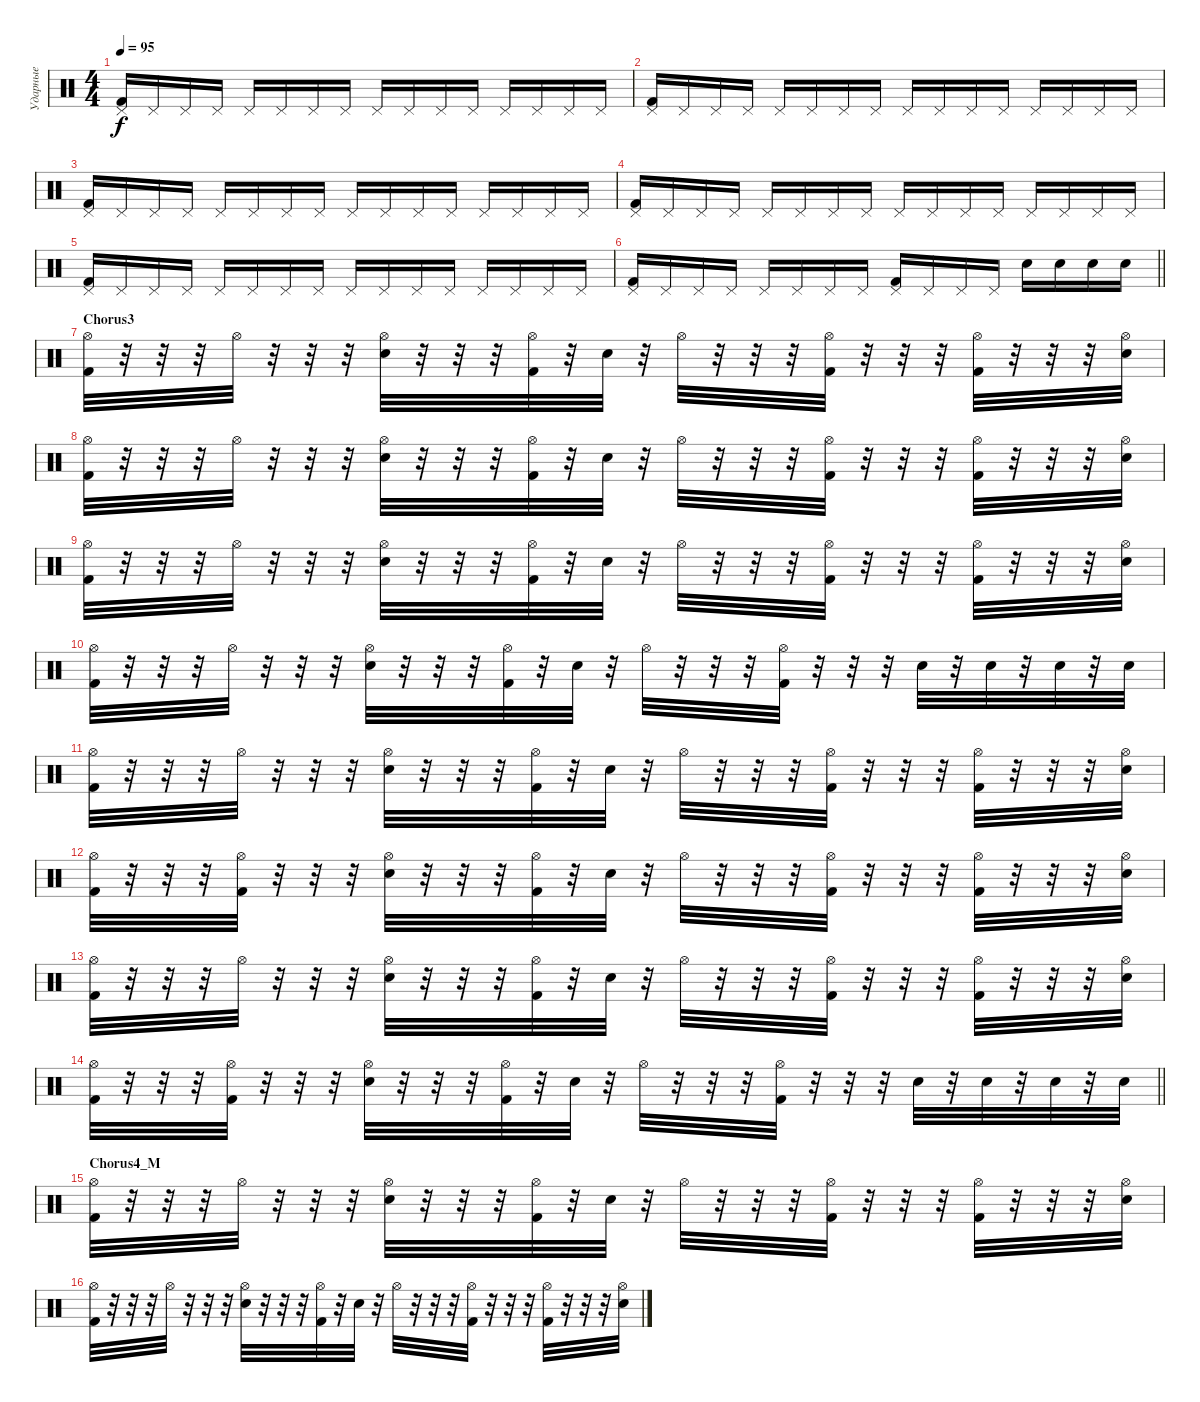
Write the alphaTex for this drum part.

\track ("Ударные" "Ударные") {instrument percussion}
\staff {score}
\articulation defaults
\ts (4 4)
\tempo 95
\clef neutral
\ks c
("Pedal Hi-Hat (hit)" "Kick (hit) 2").16{dy f} "Pedal Hi-Hat (hit)".16 "Pedal Hi-Hat (hit)".16 "Pedal Hi-Hat (hit)".16 "Pedal Hi-Hat (hit)".16 "Pedal Hi-Hat (hit)".16 "Pedal Hi-Hat (hit)".16 "Pedal Hi-Hat (hit)".16 "Pedal Hi-Hat (hit)".16 "Pedal Hi-Hat (hit)".16 "Pedal Hi-Hat (hit)".16 "Pedal Hi-Hat (hit)".16 "Pedal Hi-Hat (hit)".16 "Pedal Hi-Hat (hit)".16 "Pedal Hi-Hat (hit)".16 "Pedal Hi-Hat (hit)".16 |
("Pedal Hi-Hat (hit)" "Kick (hit) 2").16 "Pedal Hi-Hat (hit)".16 "Pedal Hi-Hat (hit)".16 "Pedal Hi-Hat (hit)".16 "Pedal Hi-Hat (hit)".16 "Pedal Hi-Hat (hit)".16 "Pedal Hi-Hat (hit)".16 "Pedal Hi-Hat (hit)".16 "Pedal Hi-Hat (hit)".16 "Pedal Hi-Hat (hit)".16 "Pedal Hi-Hat (hit)".16 "Pedal Hi-Hat (hit)".16 "Pedal Hi-Hat (hit)".16 "Pedal Hi-Hat (hit)".16 "Pedal Hi-Hat (hit)".16 "Pedal Hi-Hat (hit)".16 |
("Pedal Hi-Hat (hit)" "Kick (hit) 2").16 "Pedal Hi-Hat (hit)".16 "Pedal Hi-Hat (hit)".16 "Pedal Hi-Hat (hit)".16 "Pedal Hi-Hat (hit)".16 "Pedal Hi-Hat (hit)".16 "Pedal Hi-Hat (hit)".16 "Pedal Hi-Hat (hit)".16 "Pedal Hi-Hat (hit)".16 "Pedal Hi-Hat (hit)".16 "Pedal Hi-Hat (hit)".16 "Pedal Hi-Hat (hit)".16 "Pedal Hi-Hat (hit)".16 "Pedal Hi-Hat (hit)".16 "Pedal Hi-Hat (hit)".16 "Pedal Hi-Hat (hit)".16 |
("Pedal Hi-Hat (hit)" "Kick (hit) 2").16 "Pedal Hi-Hat (hit)".16 "Pedal Hi-Hat (hit)".16 "Pedal Hi-Hat (hit)".16 "Pedal Hi-Hat (hit)".16 "Pedal Hi-Hat (hit)".16 "Pedal Hi-Hat (hit)".16 "Pedal Hi-Hat (hit)".16 "Pedal Hi-Hat (hit)".16 "Pedal Hi-Hat (hit)".16 "Pedal Hi-Hat (hit)".16 "Pedal Hi-Hat (hit)".16 "Pedal Hi-Hat (hit)".16 "Pedal Hi-Hat (hit)".16 "Pedal Hi-Hat (hit)".16 "Pedal Hi-Hat (hit)".16 |
("Pedal Hi-Hat (hit)" "Kick (hit) 2").16 "Pedal Hi-Hat (hit)".16 "Pedal Hi-Hat (hit)".16 "Pedal Hi-Hat (hit)".16 "Pedal Hi-Hat (hit)".16 "Pedal Hi-Hat (hit)".16 "Pedal Hi-Hat (hit)".16 "Pedal Hi-Hat (hit)".16 "Pedal Hi-Hat (hit)".16 "Pedal Hi-Hat (hit)".16 "Pedal Hi-Hat (hit)".16 "Pedal Hi-Hat (hit)".16 "Pedal Hi-Hat (hit)".16 "Pedal Hi-Hat (hit)".16 "Pedal Hi-Hat (hit)".16 "Pedal Hi-Hat (hit)".16 |
\barLineRight lightlight
("Pedal Hi-Hat (hit)" "Kick (hit) 2").16 "Pedal Hi-Hat (hit)".16 "Pedal Hi-Hat (hit)".16 "Pedal Hi-Hat (hit)".16 "Pedal Hi-Hat (hit)".16 "Pedal Hi-Hat (hit)".16 "Pedal Hi-Hat (hit)".16 "Pedal Hi-Hat (hit)".16 ("Pedal Hi-Hat (hit)" "Kick (hit) 2").16 "Pedal Hi-Hat (hit)".16 "Pedal Hi-Hat (hit)".16 "Pedal Hi-Hat (hit)".16 "Snare (hit) 2".16 "Snare (hit) 2".16 "Snare (hit) 2".16 "Snare (hit) 2".16 |
\section ("" "Chorus3")
("Hi-Hat (open)" "Kick (hit) 2").32{volume 12} r.32 r.32 r.32 "Hi-Hat (open)".32 r.32 r.32 r.32 ("Hi-Hat (open)" "Snare (hit) 2").32 r.32 r.32 r.32 ("Hi-Hat (open)" "Kick (hit) 2").32 r.32 "Snare (hit) 2".32 r.32 "Hi-Hat (open)".32 r.32 r.32 r.32 ("Hi-Hat (open)" "Kick (hit) 2").32 r.32 r.32 r.32 ("Hi-Hat (open)" "Kick (hit) 2").32 r.32 r.32 r.32 ("Hi-Hat (open)" "Snare (hit) 2").32 |
("Hi-Hat (open)" "Kick (hit) 2").32 r.32 r.32 r.32 "Hi-Hat (open)".32 r.32 r.32 r.32 ("Hi-Hat (open)" "Snare (hit) 2").32 r.32 r.32 r.32 ("Hi-Hat (open)" "Kick (hit) 2").32 r.32 "Snare (hit) 2".32 r.32 "Hi-Hat (open)".32 r.32 r.32 r.32 ("Hi-Hat (open)" "Kick (hit) 2").32 r.32 r.32 r.32 ("Hi-Hat (open)" "Kick (hit) 2").32 r.32 r.32 r.32 ("Hi-Hat (open)" "Snare (hit) 2").32 |
("Hi-Hat (open)" "Kick (hit) 2").32 r.32 r.32 r.32 "Hi-Hat (open)".32 r.32 r.32 r.32 ("Hi-Hat (open)" "Snare (hit) 2").32 r.32 r.32 r.32 ("Hi-Hat (open)" "Kick (hit) 2").32 r.32 "Snare (hit) 2".32 r.32 "Hi-Hat (open)".32 r.32 r.32 r.32 ("Hi-Hat (open)" "Kick (hit) 2").32 r.32 r.32 r.32 ("Hi-Hat (open)" "Kick (hit) 2").32 r.32 r.32 r.32 ("Hi-Hat (open)" "Snare (hit) 2").32 |
("Hi-Hat (open)" "Kick (hit) 2").32 r.32 r.32 r.32 "Hi-Hat (open)".32 r.32 r.32 r.32 ("Hi-Hat (open)" "Snare (hit) 2").32 r.32 r.32 r.32 ("Hi-Hat (open)" "Kick (hit) 2").32 r.32 "Snare (hit) 2".32 r.32 "Hi-Hat (open)".32 r.32 r.32 r.32 ("Hi-Hat (open)" "Kick (hit) 2").32 r.32 r.32 r.32 "Snare (hit) 2".32 r.32 "Snare (hit) 2".32 r.32 "Snare (hit) 2".32 r.32 "Snare (hit) 2".32 |
("Hi-Hat (open)" "Kick (hit) 2").32 r.32 r.32 r.32 "Hi-Hat (open)".32 r.32 r.32 r.32 ("Hi-Hat (open)" "Snare (hit) 2").32 r.32 r.32 r.32 ("Hi-Hat (open)" "Kick (hit) 2").32 r.32 "Snare (hit) 2".32 r.32 "Hi-Hat (open)".32 r.32 r.32 r.32 ("Hi-Hat (open)" "Kick (hit) 2").32 r.32 r.32 r.32 ("Hi-Hat (open)" "Kick (hit) 2").32 r.32 r.32 r.32 ("Hi-Hat (open)" "Snare (hit) 2").32 |
("Hi-Hat (open)" "Kick (hit) 2").32 r.32 r.32 r.32 ("Hi-Hat (open)" "Kick (hit) 2").32 r.32 r.32 r.32 ("Hi-Hat (open)" "Snare (hit) 2").32 r.32 r.32 r.32 ("Hi-Hat (open)" "Kick (hit) 2").32 r.32 "Snare (hit) 2".32 r.32 "Hi-Hat (open)".32 r.32 r.32 r.32 ("Hi-Hat (open)" "Kick (hit) 2").32 r.32 r.32 r.32 ("Hi-Hat (open)" "Kick (hit) 2").32 r.32 r.32 r.32 ("Hi-Hat (open)" "Snare (hit) 2").32 |
("Hi-Hat (open)" "Kick (hit) 2").32 r.32 r.32 r.32 "Hi-Hat (open)".32 r.32 r.32 r.32 ("Hi-Hat (open)" "Snare (hit) 2").32 r.32 r.32 r.32 ("Hi-Hat (open)" "Kick (hit) 2").32 r.32 "Snare (hit) 2".32 r.32 "Hi-Hat (open)".32 r.32 r.32 r.32 ("Hi-Hat (open)" "Kick (hit) 2").32 r.32 r.32 r.32 ("Hi-Hat (open)" "Kick (hit) 2").32 r.32 r.32 r.32 ("Hi-Hat (open)" "Snare (hit) 2").32 |
\barLineRight lightlight
("Hi-Hat (open)" "Kick (hit) 2").32 r.32 r.32 r.32 ("Hi-Hat (open)" "Kick (hit) 2").32 r.32 r.32 r.32 ("Hi-Hat (open)" "Snare (hit) 2").32 r.32 r.32 r.32 ("Hi-Hat (open)" "Kick (hit) 2").32 r.32 "Snare (hit) 2".32 r.32 "Hi-Hat (open)".32 r.32 r.32 r.32 ("Hi-Hat (open)" "Kick (hit) 2").32 r.32 r.32 r.32 "Snare (hit) 2".32 r.32 "Snare (hit) 2".32 r.32 "Snare (hit) 2".32 r.32 "Snare (hit) 2".32 |
\section ("" "Chorus4_M")
("Hi-Hat (open)" "Kick (hit) 2").32{volume 12} r.32 r.32 r.32 "Hi-Hat (open)".32 r.32 r.32 r.32 ("Hi-Hat (open)" "Snare (hit) 2").32 r.32 r.32 r.32 ("Hi-Hat (open)" "Kick (hit) 2").32 r.32 "Snare (hit) 2".32 r.32 "Hi-Hat (open)".32 r.32 r.32 r.32 ("Hi-Hat (open)" "Kick (hit) 2").32 r.32 r.32 r.32 ("Hi-Hat (open)" "Kick (hit) 2").32 r.32 r.32 r.32 ("Hi-Hat (open)" "Snare (hit) 2").32 |
("Hi-Hat (open)" "Kick (hit) 2").32 r.32 r.32 r.32 "Hi-Hat (open)".32 r.32 r.32 r.32 ("Hi-Hat (open)" "Snare (hit) 2").32 r.32 r.32 r.32 ("Hi-Hat (open)" "Kick (hit) 2").32 r.32 "Snare (hit) 2".32 r.32 "Hi-Hat (open)".32 r.32 r.32 r.32 ("Hi-Hat (open)" "Kick (hit) 2").32 r.32 r.32 r.32 ("Hi-Hat (open)" "Kick (hit) 2").32 r.32 r.32 r.32 ("Hi-Hat (open)" "Snare (hit) 2").32
